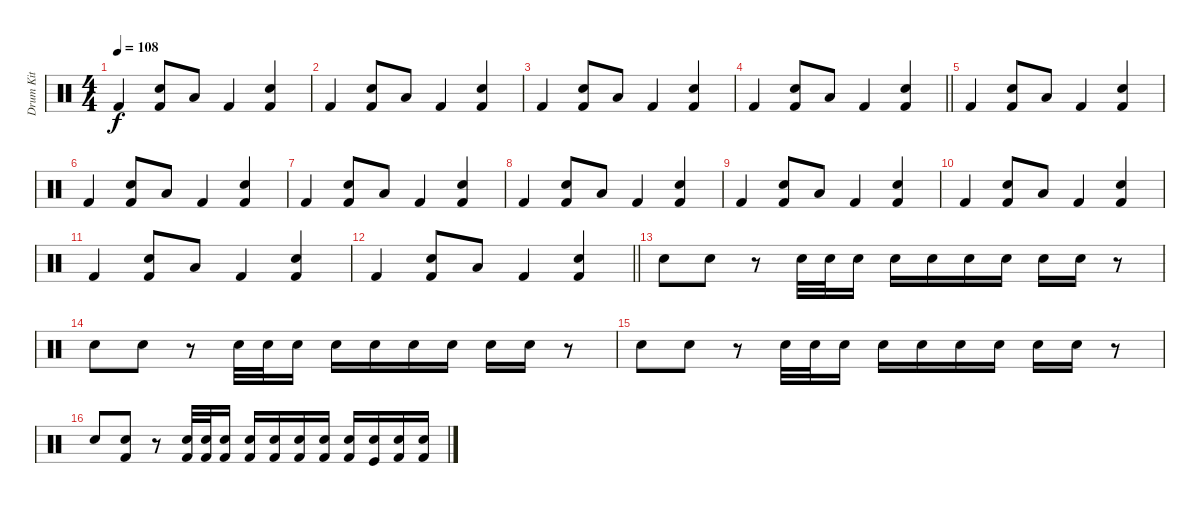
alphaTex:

\track ("Drum Kit" "Drum Kit") {instrument percussion}
\staff {score}
\articulation defaults
\ts (4 4)
\tempo 108
\clef neutral
\ks c "Kick (hit) 2".4{dy f}
("Electric Snare (hit)" "Kick (hit) 2").8 "Low Floor Tom (hit)".8 "Kick (hit) 2".4 ("Electric Snare (hit)" "Kick (hit) 2").4 |
"Kick (hit) 2".4 ("Electric Snare (hit)" "Kick (hit) 2").8 "Low Floor Tom (hit)".8 "Kick (hit) 2".4 ("Electric Snare (hit)" "Kick (hit) 2").4 |
"Kick (hit) 2".4 ("Electric Snare (hit)" "Kick (hit) 2").8 "Low Floor Tom (hit)".8 "Kick (hit) 2".4 ("Electric Snare (hit)" "Kick (hit) 2").4 |
\barLineRight lightlight "Kick (hit) 2".4
("Electric Snare (hit)" "Kick (hit) 2").8 "Low Floor Tom (hit)".8 "Kick (hit) 2".4 ("Electric Snare (hit)" "Kick (hit) 2").4 |
\section ("" "")
"Kick (hit) 2".4 ("Electric Snare (hit)" "Kick (hit) 2").8 "Low Floor Tom (hit)".8 "Kick (hit) 2".4 ("Electric Snare (hit)" "Kick (hit) 2").4 |
"Kick (hit) 2".4 ("Electric Snare (hit)" "Kick (hit) 2").8 "Low Floor Tom (hit)".8 "Kick (hit) 2".4 ("Electric Snare (hit)" "Kick (hit) 2").4 |
"Kick (hit) 2".4 ("Electric Snare (hit)" "Kick (hit) 2").8 "Low Floor Tom (hit)".8 "Kick (hit) 2".4 ("Electric Snare (hit)" "Kick (hit) 2").4 |
"Kick (hit) 2".4 ("Electric Snare (hit)" "Kick (hit) 2").8 "Low Floor Tom (hit)".8 "Kick (hit) 2".4 ("Electric Snare (hit)" "Kick (hit) 2").4 |
"Kick (hit) 2".4 ("Electric Snare (hit)" "Kick (hit) 2").8 "Low Floor Tom (hit)".8 "Kick (hit) 2".4 ("Electric Snare (hit)" "Kick (hit) 2").4 |
"Kick (hit) 2".4 ("Electric Snare (hit)" "Kick (hit) 2").8 "Low Floor Tom (hit)".8 "Kick (hit) 2".4 ("Electric Snare (hit)" "Kick (hit) 2").4 |
"Kick (hit) 2".4 ("Electric Snare (hit)" "Kick (hit) 2").8 "Low Floor Tom (hit)".8 "Kick (hit) 2".4 ("Electric Snare (hit)" "Kick (hit) 2").4 |
\barLineRight lightlight "Kick (hit) 2".4
("Electric Snare (hit)" "Kick (hit) 2").8 "Low Floor Tom (hit)".8 "Kick (hit) 2".4 ("Electric Snare (hit)" "Kick (hit) 2").4 |
\section ("" "")
"Snare (hit) 2".8 "Snare (hit) 2".8 r.8 "Electric Snare (hit)".32 "Electric Snare (hit)".32 "Electric Snare (hit)".16 "Electric Snare (hit)".16 "Electric Snare (hit)".16 "Electric Snare (hit)".16 "Electric Snare (hit)".16 "Electric Snare (hit)".16 "Electric Snare (hit)".16 r.8 |
"Snare (hit) 2".8 "Snare (hit) 2".8 r.8 "Electric Snare (hit)".32 "Electric Snare (hit)".32 "Electric Snare (hit)".16 "Electric Snare (hit)".16 "Electric Snare (hit)".16 "Electric Snare (hit)".16 "Electric Snare (hit)".16 "Electric Snare (hit)".16 "Electric Snare (hit)".16 r.8 |
"Snare (hit) 2".8 "Snare (hit) 2".8 r.8 "Electric Snare (hit)".32 "Electric Snare (hit)".32 "Electric Snare (hit)".16 "Electric Snare (hit)".16 "Electric Snare (hit)".16 "Electric Snare (hit)".16 "Electric Snare (hit)".16 "Electric Snare (hit)".16 "Electric Snare (hit)".16 r.8 |
"Snare (hit) 2".8 ("Snare (hit) 2" "Kick (hit) 2").8 r.8 ("Electric Snare (hit)" "Kick (hit) 2").32 ("Electric Snare (hit)" "Kick (hit) 2").32 ("Electric Snare (hit)" "Kick (hit) 2").16 ("Electric Snare (hit)" "Kick (hit) 2").16 ("Electric Snare (hit)" "Kick (hit) 2").16 ("Electric Snare (hit)" "Kick (hit) 2").16 ("Electric Snare (hit)" "Kick (hit) 2").16 ("Electric Snare (hit)" "Kick (hit) 2").16 ("Electric Snare (hit)" "Kick (hit)").16 ("Electric Snare (hit)" "Kick (hit) 2").16 ("Electric Snare (hit)" "Kick (hit) 2").16
